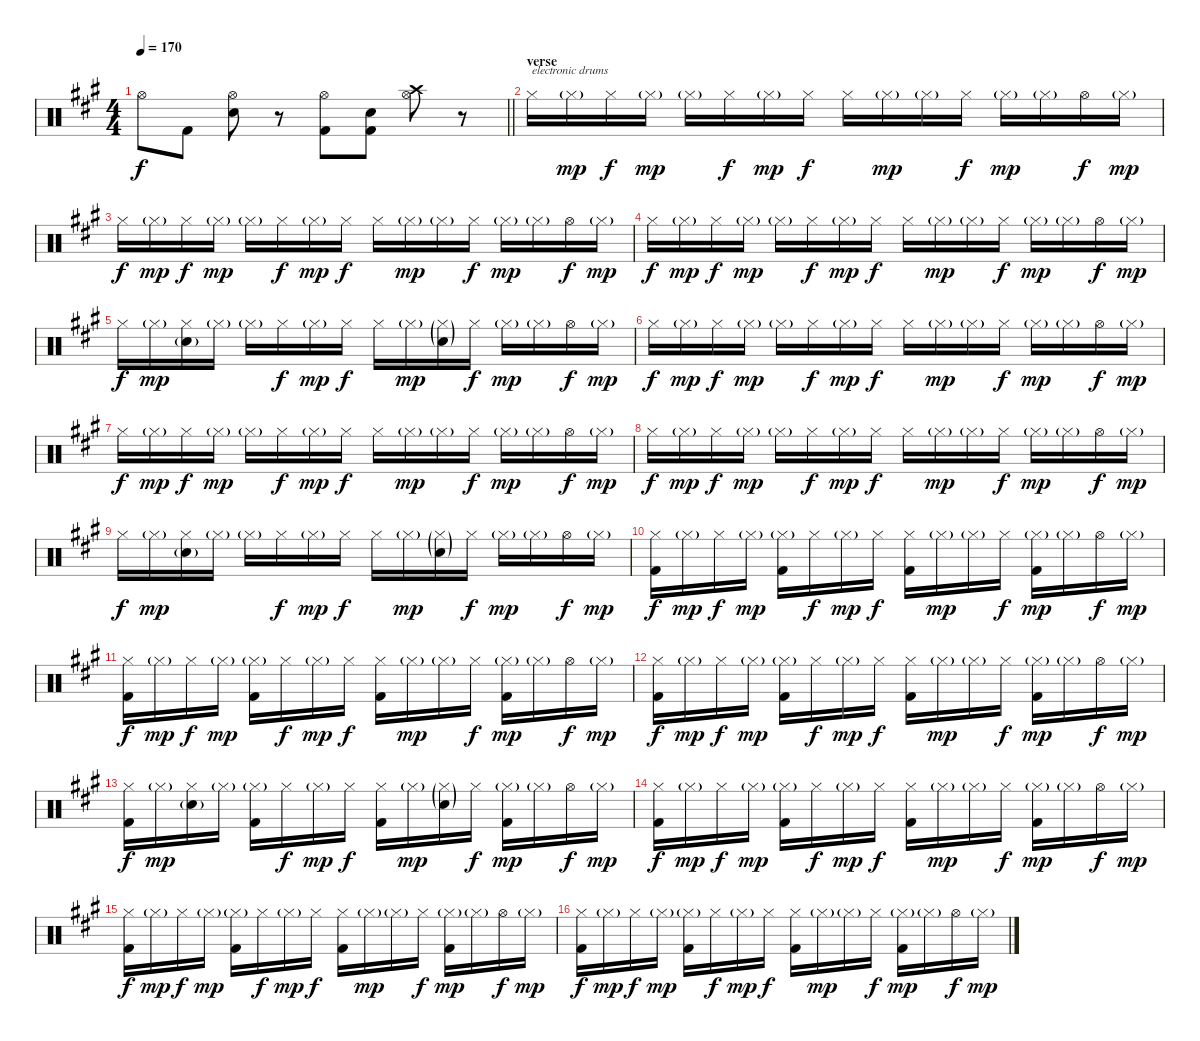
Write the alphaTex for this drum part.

\track "" {instrument percussion}
\staff {score}
\articulation defaults
\ts (4 4)
\tempo 170
\clef neutral
\barLineRight lightlight
\ks f#minor "Hi-Hat (open)".8{dy f} "Kick (hit) 2".8
("Electric Snare (hit)" "Hi-Hat (open)").8 r.8 ("Kick (hit) 2" "Hi-Hat (open)").8 ("Kick (hit) 2" "Electric Snare (hit)").8 ("Hi-Hat (open)" "Crash high (hit)").8 r.8 |
\section ("" "verse")
"Hi-Hat (closed)".16{txt "electronic drums"} "Hi-Hat (closed)"{g}.16{dy mp} "Hi-Hat (closed)".16{dy f} "Hi-Hat (closed)"{g}.16{dy mp} "Hi-Hat (closed)"{g}.16 "Hi-Hat (closed)".16{dy f} "Hi-Hat (closed)"{g}.16{dy mp} "Hi-Hat (closed)".16{dy f} "Hi-Hat (closed)".16 "Hi-Hat (closed)"{g}.16{dy mp} "Hi-Hat (closed)"{g}.16 "Hi-Hat (closed)".16{dy f} "Hi-Hat (closed)"{g}.16{dy mp} "Hi-Hat (closed)"{g}.16 "Hi-Hat (open)".16{dy f} "Hi-Hat (closed)"{g}.16{dy mp} |
"Hi-Hat (closed)".16{dy f} "Hi-Hat (closed)"{g}.16{dy mp} "Hi-Hat (closed)".16{dy f} "Hi-Hat (closed)"{g}.16{dy mp} "Hi-Hat (closed)"{g}.16 "Hi-Hat (closed)".16{dy f} "Hi-Hat (closed)"{g}.16{dy mp} "Hi-Hat (closed)".16{dy f} "Hi-Hat (closed)".16 "Hi-Hat (closed)"{g}.16{dy mp} "Hi-Hat (closed)"{g}.16 "Hi-Hat (closed)".16{dy f} "Hi-Hat (closed)"{g}.16{dy mp} "Hi-Hat (closed)"{g}.16 "Hi-Hat (open)".16{dy f} "Hi-Hat (closed)"{g}.16{dy mp} |
"Hi-Hat (closed)".16{dy f} "Hi-Hat (closed)"{g}.16{dy mp} "Hi-Hat (closed)".16{dy f} "Hi-Hat (closed)"{g}.16{dy mp} "Hi-Hat (closed)"{g}.16 "Hi-Hat (closed)".16{dy f} "Hi-Hat (closed)"{g}.16{dy mp} "Hi-Hat (closed)".16{dy f} "Hi-Hat (closed)".16 "Hi-Hat (closed)"{g}.16{dy mp} "Hi-Hat (closed)"{g}.16 "Hi-Hat (closed)".16{dy f} "Hi-Hat (closed)"{g}.16{dy mp} "Hi-Hat (closed)"{g}.16 "Hi-Hat (open)".16{dy f} "Hi-Hat (closed)"{g}.16{dy mp} |
"Hi-Hat (closed)".16{dy f} "Hi-Hat (closed)"{g}.16{dy mp} ("Electric Snare (hit)"{g} "Hi-Hat (closed)").16 "Hi-Hat (closed)"{g}.16 "Hi-Hat (closed)"{g}.16 "Hi-Hat (closed)".16{dy f} "Hi-Hat (closed)"{g}.16{dy mp} "Hi-Hat (closed)".16{dy f} "Hi-Hat (closed)".16 "Hi-Hat (closed)"{g}.16{dy mp} ("Electric Snare (hit)"{g} "Hi-Hat (closed)"{g}).16 "Hi-Hat (closed)".16{dy f} "Hi-Hat (closed)"{g}.16{dy mp} "Hi-Hat (closed)"{g}.16 "Hi-Hat (open)".16{dy f} "Hi-Hat (closed)"{g}.16{dy mp} |
"Hi-Hat (closed)".16{dy f} "Hi-Hat (closed)"{g}.16{dy mp} "Hi-Hat (closed)".16{dy f} "Hi-Hat (closed)"{g}.16{dy mp} "Hi-Hat (closed)"{g}.16 "Hi-Hat (closed)".16{dy f} "Hi-Hat (closed)"{g}.16{dy mp} "Hi-Hat (closed)".16{dy f} "Hi-Hat (closed)".16 "Hi-Hat (closed)"{g}.16{dy mp} "Hi-Hat (closed)"{g}.16 "Hi-Hat (closed)".16{dy f} "Hi-Hat (closed)"{g}.16{dy mp} "Hi-Hat (closed)"{g}.16 "Hi-Hat (open)".16{dy f} "Hi-Hat (closed)"{g}.16{dy mp} |
"Hi-Hat (closed)".16{dy f} "Hi-Hat (closed)"{g}.16{dy mp} "Hi-Hat (closed)".16{dy f} "Hi-Hat (closed)"{g}.16{dy mp} "Hi-Hat (closed)"{g}.16 "Hi-Hat (closed)".16{dy f} "Hi-Hat (closed)"{g}.16{dy mp} "Hi-Hat (closed)".16{dy f} "Hi-Hat (closed)".16 "Hi-Hat (closed)"{g}.16{dy mp} "Hi-Hat (closed)"{g}.16 "Hi-Hat (closed)".16{dy f} "Hi-Hat (closed)"{g}.16{dy mp} "Hi-Hat (closed)"{g}.16 "Hi-Hat (open)".16{dy f} "Hi-Hat (closed)"{g}.16{dy mp} |
"Hi-Hat (closed)".16{dy f} "Hi-Hat (closed)"{g}.16{dy mp} "Hi-Hat (closed)".16{dy f} "Hi-Hat (closed)"{g}.16{dy mp} "Hi-Hat (closed)"{g}.16 "Hi-Hat (closed)".16{dy f} "Hi-Hat (closed)"{g}.16{dy mp} "Hi-Hat (closed)".16{dy f} "Hi-Hat (closed)".16 "Hi-Hat (closed)"{g}.16{dy mp} "Hi-Hat (closed)"{g}.16 "Hi-Hat (closed)".16{dy f} "Hi-Hat (closed)"{g}.16{dy mp} "Hi-Hat (closed)"{g}.16 "Hi-Hat (open)".16{dy f} "Hi-Hat (closed)"{g}.16{dy mp} |
"Hi-Hat (closed)".16{dy f} "Hi-Hat (closed)"{g}.16{dy mp} ("Electric Snare (hit)"{g} "Hi-Hat (closed)").16 "Hi-Hat (closed)"{g}.16 "Hi-Hat (closed)"{g}.16 "Hi-Hat (closed)".16{dy f} "Hi-Hat (closed)"{g}.16{dy mp} "Hi-Hat (closed)".16{dy f} "Hi-Hat (closed)".16 "Hi-Hat (closed)"{g}.16{dy mp} ("Electric Snare (hit)"{g} "Hi-Hat (closed)"{g}).16 "Hi-Hat (closed)".16{dy f} "Hi-Hat (closed)"{g}.16{dy mp} "Hi-Hat (closed)"{g}.16 "Hi-Hat (open)".16{dy f} "Hi-Hat (closed)"{g}.16{dy mp} |
("Kick (hit) 2" "Hi-Hat (closed)").16{dy f} "Hi-Hat (closed)"{g}.16{dy mp} "Hi-Hat (closed)".16{dy f} "Hi-Hat (closed)"{g}.16{dy mp} ("Kick (hit) 2" "Hi-Hat (closed)"{g}).16 "Hi-Hat (closed)".16{dy f} "Hi-Hat (closed)"{g}.16{dy mp} "Hi-Hat (closed)".16{dy f} ("Kick (hit) 2" "Hi-Hat (closed)").16 "Hi-Hat (closed)"{g}.16{dy mp} "Hi-Hat (closed)"{g}.16 "Hi-Hat (closed)".16{dy f} ("Kick (hit) 2" "Hi-Hat (closed)"{g}).16{dy mp} "Hi-Hat (closed)"{g}.16 "Hi-Hat (open)".16{dy f} "Hi-Hat (closed)"{g}.16{dy mp} |
("Kick (hit) 2" "Hi-Hat (closed)").16{dy f} "Hi-Hat (closed)"{g}.16{dy mp} "Hi-Hat (closed)".16{dy f} "Hi-Hat (closed)"{g}.16{dy mp} ("Kick (hit) 2" "Hi-Hat (closed)"{g}).16 "Hi-Hat (closed)".16{dy f} "Hi-Hat (closed)"{g}.16{dy mp} "Hi-Hat (closed)".16{dy f} ("Kick (hit) 2" "Hi-Hat (closed)").16 "Hi-Hat (closed)"{g}.16{dy mp} "Hi-Hat (closed)"{g}.16 "Hi-Hat (closed)".16{dy f} ("Kick (hit) 2" "Hi-Hat (closed)"{g}).16{dy mp} "Hi-Hat (closed)"{g}.16 "Hi-Hat (open)".16{dy f} "Hi-Hat (closed)"{g}.16{dy mp} |
("Kick (hit) 2" "Hi-Hat (closed)").16{dy f} "Hi-Hat (closed)"{g}.16{dy mp} "Hi-Hat (closed)".16{dy f} "Hi-Hat (closed)"{g}.16{dy mp} ("Kick (hit) 2" "Hi-Hat (closed)"{g}).16 "Hi-Hat (closed)".16{dy f} "Hi-Hat (closed)"{g}.16{dy mp} "Hi-Hat (closed)".16{dy f} ("Kick (hit) 2" "Hi-Hat (closed)").16 "Hi-Hat (closed)"{g}.16{dy mp} "Hi-Hat (closed)"{g}.16 "Hi-Hat (closed)".16{dy f} ("Kick (hit) 2" "Hi-Hat (closed)"{g}).16{dy mp} "Hi-Hat (closed)"{g}.16 "Hi-Hat (open)".16{dy f} "Hi-Hat (closed)"{g}.16{dy mp} |
("Kick (hit) 2" "Hi-Hat (closed)").16{dy f} "Hi-Hat (closed)"{g}.16{dy mp} ("Electric Snare (hit)"{g} "Hi-Hat (closed)").16 "Hi-Hat (closed)"{g}.16 ("Kick (hit) 2" "Hi-Hat (closed)"{g}).16 "Hi-Hat (closed)".16{dy f} "Hi-Hat (closed)"{g}.16{dy mp} "Hi-Hat (closed)".16{dy f} ("Kick (hit) 2" "Hi-Hat (closed)").16 "Hi-Hat (closed)"{g}.16{dy mp} ("Electric Snare (hit)"{g} "Hi-Hat (closed)"{g}).16 "Hi-Hat (closed)".16{dy f} ("Kick (hit) 2" "Hi-Hat (closed)"{g}).16{dy mp} "Hi-Hat (closed)"{g}.16 "Hi-Hat (open)".16{dy f} "Hi-Hat (closed)"{g}.16{dy mp} |
("Kick (hit) 2" "Hi-Hat (closed)").16{dy f} "Hi-Hat (closed)"{g}.16{dy mp} "Hi-Hat (closed)".16{dy f} "Hi-Hat (closed)"{g}.16{dy mp} ("Kick (hit) 2" "Hi-Hat (closed)"{g}).16 "Hi-Hat (closed)".16{dy f} "Hi-Hat (closed)"{g}.16{dy mp} "Hi-Hat (closed)".16{dy f} ("Kick (hit) 2" "Hi-Hat (closed)").16 "Hi-Hat (closed)"{g}.16{dy mp} "Hi-Hat (closed)"{g}.16 "Hi-Hat (closed)".16{dy f} ("Kick (hit) 2" "Hi-Hat (closed)"{g}).16{dy mp} "Hi-Hat (closed)"{g}.16 "Hi-Hat (open)".16{dy f} "Hi-Hat (closed)"{g}.16{dy mp} |
("Kick (hit) 2" "Hi-Hat (closed)").16{dy f} "Hi-Hat (closed)"{g}.16{dy mp} "Hi-Hat (closed)".16{dy f} "Hi-Hat (closed)"{g}.16{dy mp} ("Kick (hit) 2" "Hi-Hat (closed)"{g}).16 "Hi-Hat (closed)".16{dy f} "Hi-Hat (closed)"{g}.16{dy mp} "Hi-Hat (closed)".16{dy f} ("Kick (hit) 2" "Hi-Hat (closed)").16 "Hi-Hat (closed)"{g}.16{dy mp} "Hi-Hat (closed)"{g}.16 "Hi-Hat (closed)".16{dy f} ("Kick (hit) 2" "Hi-Hat (closed)"{g}).16{dy mp} "Hi-Hat (closed)"{g}.16 "Hi-Hat (open)".16{dy f} "Hi-Hat (closed)"{g}.16{dy mp} |
("Kick (hit) 2" "Hi-Hat (closed)").16{dy f} "Hi-Hat (closed)"{g}.16{dy mp} "Hi-Hat (closed)".16{dy f} "Hi-Hat (closed)"{g}.16{dy mp} ("Kick (hit) 2" "Hi-Hat (closed)"{g}).16 "Hi-Hat (closed)".16{dy f} "Hi-Hat (closed)"{g}.16{dy mp} "Hi-Hat (closed)".16{dy f} ("Kick (hit) 2" "Hi-Hat (closed)").16 "Hi-Hat (closed)"{g}.16{dy mp} "Hi-Hat (closed)"{g}.16 "Hi-Hat (closed)".16{dy f} ("Kick (hit) 2" "Hi-Hat (closed)"{g}).16{dy mp} "Hi-Hat (closed)"{g}.16 "Hi-Hat (open)".16{dy f} "Hi-Hat (closed)"{g}.16{dy mp}
